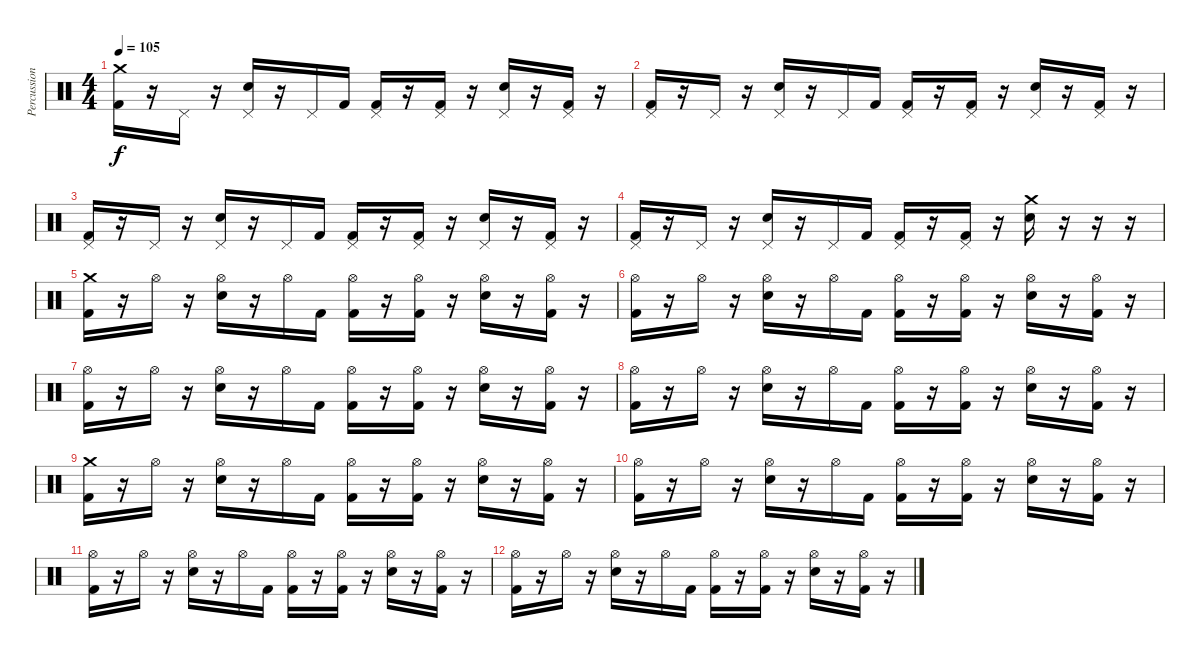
\track ("Percussions" "Percussion") {instrument percussion}
\staff {score}
\articulation defaults
\ts (4 4)
\tempo 105
\clef neutral
\ks c
("Crash medium (hit)" "Kick (hit) 2").16{dy f volume 16} r.16 "Pedal Hi-Hat (hit)".16 r.16 ("Pedal Hi-Hat (hit)" "Snare (hit) 2").16 r.16 "Pedal Hi-Hat (hit)".16 "Kick (hit) 2".16 ("Pedal Hi-Hat (hit)" "Kick (hit) 2").16 r.16 ("Pedal Hi-Hat (hit)" "Kick (hit) 2").16 r.16 ("Pedal Hi-Hat (hit)" "Snare (hit) 2").16 r.16 ("Pedal Hi-Hat (hit)" "Kick (hit) 2").16 r.16 |
("Pedal Hi-Hat (hit)" "Kick (hit) 2").16 r.16 "Pedal Hi-Hat (hit)".16 r.16 ("Pedal Hi-Hat (hit)" "Snare (hit) 2").16 r.16 "Pedal Hi-Hat (hit)".16 "Kick (hit) 2".16 ("Pedal Hi-Hat (hit)" "Kick (hit) 2").16 r.16 ("Pedal Hi-Hat (hit)" "Kick (hit) 2").16 r.16 ("Pedal Hi-Hat (hit)" "Snare (hit) 2").16 r.16 ("Pedal Hi-Hat (hit)" "Kick (hit) 2").16 r.16 |
("Pedal Hi-Hat (hit)" "Kick (hit) 2").16 r.16 "Pedal Hi-Hat (hit)".16 r.16 ("Pedal Hi-Hat (hit)" "Snare (hit) 2").16 r.16 "Pedal Hi-Hat (hit)".16 "Kick (hit) 2".16 ("Pedal Hi-Hat (hit)" "Kick (hit) 2").16 r.16 ("Pedal Hi-Hat (hit)" "Kick (hit) 2").16 r.16 ("Pedal Hi-Hat (hit)" "Snare (hit) 2").16 r.16 ("Pedal Hi-Hat (hit)" "Kick (hit) 2").16 r.16 |
("Pedal Hi-Hat (hit)" "Kick (hit) 2").16 r.16 "Pedal Hi-Hat (hit)".16 r.16 ("Pedal Hi-Hat (hit)" "Snare (hit) 2").16 r.16 "Pedal Hi-Hat (hit)".16 "Kick (hit) 2".16 ("Pedal Hi-Hat (hit)" "Kick (hit) 2").16 r.16 ("Pedal Hi-Hat (hit)" "Kick (hit) 2").16 r.16 ("Crash medium (hit)" "Snare (hit) 2").16 r.16 r.16 r.16 |
("Crash medium (hit)" "Kick (hit) 2").16{volume 16} r.16 "Hi-Hat (open)".16 r.16 ("Hi-Hat (open)" "Snare (hit) 2").16 r.16 "Hi-Hat (open)".16 "Kick (hit) 2".16 ("Hi-Hat (open)" "Kick (hit) 2").16 r.16 ("Hi-Hat (open)" "Kick (hit) 2").16 r.16 ("Hi-Hat (open)" "Snare (hit) 2").16 r.16 ("Hi-Hat (open)" "Kick (hit) 2").16 r.16 |
("Hi-Hat (open)" "Kick (hit) 2").16 r.16 "Hi-Hat (open)".16 r.16 ("Hi-Hat (open)" "Snare (hit) 2").16 r.16 "Hi-Hat (open)".16 "Kick (hit) 2".16 ("Hi-Hat (open)" "Kick (hit) 2").16 r.16 ("Hi-Hat (open)" "Kick (hit) 2").16 r.16 ("Hi-Hat (open)" "Snare (hit) 2").16 r.16 ("Hi-Hat (open)" "Kick (hit) 2").16 r.16 |
("Hi-Hat (open)" "Kick (hit) 2").16 r.16 "Hi-Hat (open)".16 r.16 ("Hi-Hat (open)" "Snare (hit) 2").16 r.16 "Hi-Hat (open)".16 "Kick (hit) 2".16 ("Hi-Hat (open)" "Kick (hit) 2").16 r.16 ("Hi-Hat (open)" "Kick (hit) 2").16 r.16 ("Hi-Hat (open)" "Snare (hit) 2").16 r.16 ("Hi-Hat (open)" "Kick (hit) 2").16 r.16 |
("Hi-Hat (open)" "Kick (hit) 2").16 r.16 "Hi-Hat (open)".16 r.16 ("Hi-Hat (open)" "Snare (hit) 2").16 r.16 "Hi-Hat (open)".16 "Kick (hit) 2".16 ("Hi-Hat (open)" "Kick (hit) 2").16 r.16 ("Hi-Hat (open)" "Kick (hit) 2").16 r.16 ("Hi-Hat (open)" "Snare (hit) 2").16 r.16 ("Hi-Hat (open)" "Kick (hit) 2").16 r.16 |
("Crash medium (hit)" "Kick (hit) 2").16{volume 16} r.16 "Hi-Hat (open)".16 r.16 ("Hi-Hat (open)" "Snare (hit) 2").16 r.16 "Hi-Hat (open)".16 "Kick (hit) 2".16 ("Hi-Hat (open)" "Kick (hit) 2").16 r.16 ("Hi-Hat (open)" "Kick (hit) 2").16 r.16 ("Hi-Hat (open)" "Snare (hit) 2").16 r.16 ("Hi-Hat (open)" "Kick (hit) 2").16 r.16 |
("Hi-Hat (open)" "Kick (hit) 2").16 r.16 "Hi-Hat (open)".16 r.16 ("Hi-Hat (open)" "Snare (hit) 2").16 r.16 "Hi-Hat (open)".16 "Kick (hit) 2".16 ("Hi-Hat (open)" "Kick (hit) 2").16 r.16 ("Hi-Hat (open)" "Kick (hit) 2").16 r.16 ("Hi-Hat (open)" "Snare (hit) 2").16 r.16 ("Hi-Hat (open)" "Kick (hit) 2").16 r.16 |
("Hi-Hat (open)" "Kick (hit) 2").16 r.16 "Hi-Hat (open)".16 r.16 ("Hi-Hat (open)" "Snare (hit) 2").16 r.16 "Hi-Hat (open)".16 "Kick (hit) 2".16 ("Hi-Hat (open)" "Kick (hit) 2").16 r.16 ("Hi-Hat (open)" "Kick (hit) 2").16 r.16 ("Hi-Hat (open)" "Snare (hit) 2").16 r.16 ("Hi-Hat (open)" "Kick (hit) 2").16 r.16 |
("Hi-Hat (open)" "Kick (hit) 2").16 r.16 "Hi-Hat (open)".16 r.16 ("Hi-Hat (open)" "Snare (hit) 2").16 r.16 "Hi-Hat (open)".16 "Kick (hit) 2".16 ("Hi-Hat (open)" "Kick (hit) 2").16 r.16 ("Hi-Hat (open)" "Kick (hit) 2").16 r.16 ("Hi-Hat (open)" "Snare (hit) 2").16 r.16 ("Hi-Hat (open)" "Kick (hit) 2").16 r.16
